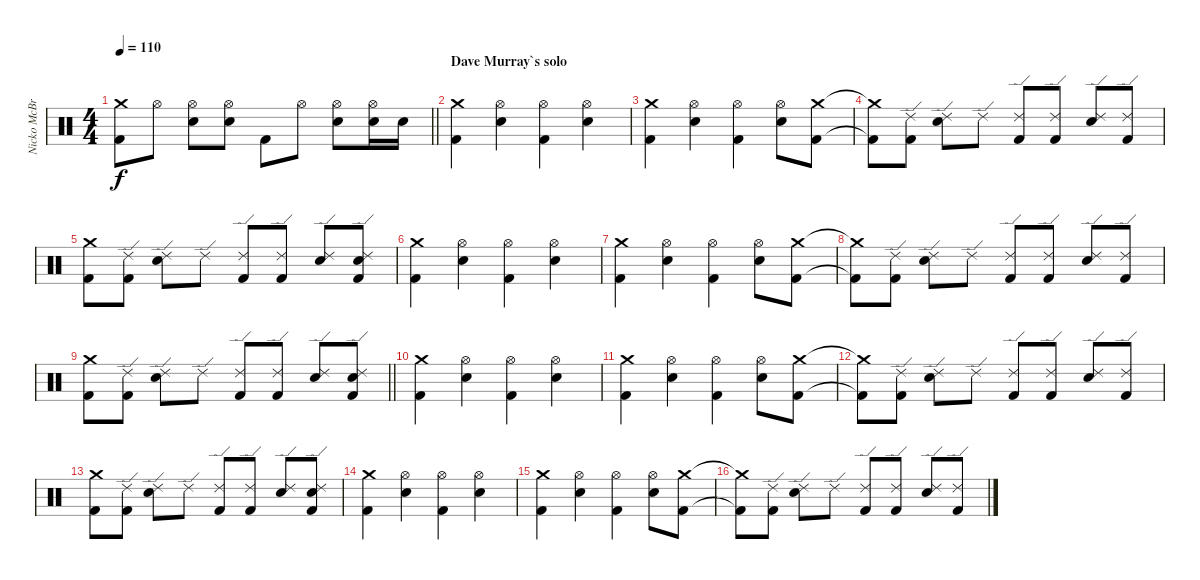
\track ("Nicko McBrain" "Nicko McBr") {instrument percussion}
\staff {score}
\articulation defaults
\ts (4 4)
\tempo 110
\clef neutral
\barLineRight lightlight
\ks c
("Crash medium (hit)" "Kick (hit) 2").8{dy f} "Hi-Hat (open)".8 ("Snare (hit) 2" "Hi-Hat (open)").8 ("Snare (hit) 2" "Hi-Hat (open)").8 "Kick (hit) 2".8 "Hi-Hat (open)".8 ("Snare (hit) 2" "Hi-Hat (open)").8 ("Snare (hit) 2" "Hi-Hat (open)").16 "Snare (hit) 2".16 |
\section ("" "Dave Murray`s solo")
("Crash medium (hit)" "Kick (hit) 2").4 ("Snare (hit) 2" "Hi-Hat (open)").4 ("Hi-Hat (open)" "Kick (hit) 2").4 ("Snare (hit) 2" "Hi-Hat (open)").4 |
("Crash medium (hit)" "Kick (hit) 2").4 ("Snare (hit) 2" "Hi-Hat (open)").4 ("Hi-Hat (open)" "Kick (hit) 2").4 ("Snare (hit) 2" "Hi-Hat (open)").8 ("Crash medium (hit)" "Kick (hit) 2").8 |
("Crash medium (hit)"{t} "Kick (hit) 2"{t}).8 ("Ride (edge) 2" "Kick (hit) 2").8 ("Snare (hit) 2" "Ride (edge) 2").8 "Ride (edge) 2".8 ("Ride (edge) 2" "Kick (hit) 2").8 ("Ride (edge) 2" "Kick (hit) 2").8 ("Snare (hit) 2" "Ride (edge) 2").8 ("Ride (edge) 2" "Kick (hit) 2").8 |
("Crash medium (hit)" "Kick (hit) 2").8 ("Ride (edge) 2" "Kick (hit) 2").8 ("Snare (hit) 2" "Ride (edge) 2").8 "Ride (edge) 2".8 ("Ride (edge) 2" "Kick (hit) 2").8 ("Ride (edge) 2" "Kick (hit) 2").8 ("Snare (hit) 2" "Ride (edge) 2").8 ("Snare (hit) 2" "Ride (edge) 2" "Kick (hit) 2").8 |
("Crash medium (hit)" "Kick (hit) 2").4 ("Snare (hit) 2" "Hi-Hat (open)").4 ("Hi-Hat (open)" "Kick (hit) 2").4 ("Snare (hit) 2" "Hi-Hat (open)").4 |
("Crash medium (hit)" "Kick (hit) 2").4 ("Snare (hit) 2" "Hi-Hat (open)").4 ("Hi-Hat (open)" "Kick (hit) 2").4 ("Snare (hit) 2" "Hi-Hat (open)").8 ("Crash medium (hit)" "Kick (hit) 2").8 |
("Crash medium (hit)"{t} "Kick (hit) 2"{t}).8 ("Ride (edge) 2" "Kick (hit) 2").8 ("Snare (hit) 2" "Ride (edge) 2").8 "Ride (edge) 2".8 ("Ride (edge) 2" "Kick (hit) 2").8 ("Ride (edge) 2" "Kick (hit) 2").8 ("Snare (hit) 2" "Ride (edge) 2").8 ("Ride (edge) 2" "Kick (hit) 2").8 |
\barLineRight lightlight
("Crash medium (hit)" "Kick (hit) 2").8 ("Ride (edge) 2" "Kick (hit) 2").8 ("Snare (hit) 2" "Ride (edge) 2").8 "Ride (edge) 2".8 ("Ride (edge) 2" "Kick (hit) 2").8 ("Ride (edge) 2" "Kick (hit) 2").8 ("Snare (hit) 2" "Ride (edge) 2").8 ("Snare (hit) 2" "Ride (edge) 2" "Kick (hit) 2").8 |
\section ("" "")
("Crash medium (hit)" "Kick (hit) 2").4 ("Snare (hit) 2" "Hi-Hat (open)").4 ("Hi-Hat (open)" "Kick (hit) 2").4 ("Snare (hit) 2" "Hi-Hat (open)").4 |
("Crash medium (hit)" "Kick (hit) 2").4 ("Snare (hit) 2" "Hi-Hat (open)").4 ("Hi-Hat (open)" "Kick (hit) 2").4 ("Snare (hit) 2" "Hi-Hat (open)").8 ("Crash medium (hit)" "Kick (hit) 2").8 |
("Crash medium (hit)"{t} "Kick (hit) 2"{t}).8 ("Ride (edge) 2" "Kick (hit) 2").8 ("Snare (hit) 2" "Ride (edge) 2").8 "Ride (edge) 2".8 ("Ride (edge) 2" "Kick (hit) 2").8 ("Ride (edge) 2" "Kick (hit) 2").8 ("Snare (hit) 2" "Ride (edge) 2").8 ("Ride (edge) 2" "Kick (hit) 2").8 |
("Crash medium (hit)" "Kick (hit) 2").8 ("Ride (edge) 2" "Kick (hit) 2").8 ("Snare (hit) 2" "Ride (edge) 2").8 "Ride (edge) 2".8 ("Ride (edge) 2" "Kick (hit) 2").8 ("Ride (edge) 2" "Kick (hit) 2").8 ("Snare (hit) 2" "Ride (edge) 2").8 ("Snare (hit) 2" "Ride (edge) 2" "Kick (hit) 2").8 |
("Crash medium (hit)" "Kick (hit) 2").4 ("Snare (hit) 2" "Hi-Hat (open)").4 ("Hi-Hat (open)" "Kick (hit) 2").4 ("Snare (hit) 2" "Hi-Hat (open)").4 |
("Crash medium (hit)" "Kick (hit) 2").4 ("Snare (hit) 2" "Hi-Hat (open)").4 ("Hi-Hat (open)" "Kick (hit) 2").4 ("Snare (hit) 2" "Hi-Hat (open)").8 ("Crash medium (hit)" "Kick (hit) 2").8 |
("Crash medium (hit)"{t} "Kick (hit) 2"{t}).8 ("Ride (edge) 2" "Kick (hit) 2").8 ("Snare (hit) 2" "Ride (edge) 2").8 "Ride (edge) 2".8 ("Ride (edge) 2" "Kick (hit) 2").8 ("Ride (edge) 2" "Kick (hit) 2").8 ("Snare (hit) 2" "Ride (edge) 2").8 ("Ride (edge) 2" "Kick (hit) 2").8
